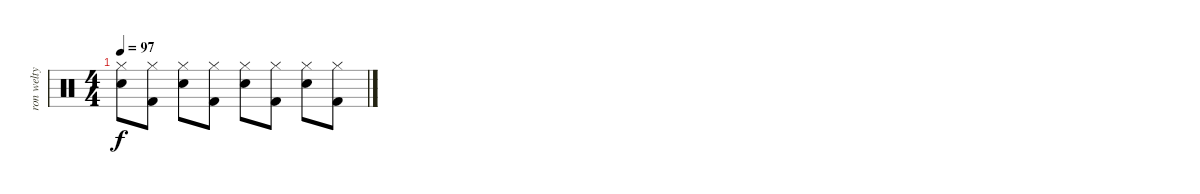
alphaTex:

\track ("ron welty" "ron welty") {instrument percussion}
\staff {score}
\articulation defaults
\ts (4 4)
\tempo 97
\clef neutral
\ks c
("Hi-Hat (closed)" "Electric Snare (hit)").8{dy f} ("Hi-Hat (closed)" "Kick (hit) 2").8 ("Hi-Hat (closed)" "Electric Snare (hit)").8 ("Hi-Hat (closed)" "Kick (hit) 2").8 ("Hi-Hat (closed)" "Electric Snare (hit)").8 ("Hi-Hat (closed)" "Kick (hit) 2").8 ("Hi-Hat (closed)" "Electric Snare (hit)").8 ("Hi-Hat (closed)" "Kick (hit) 2").8
